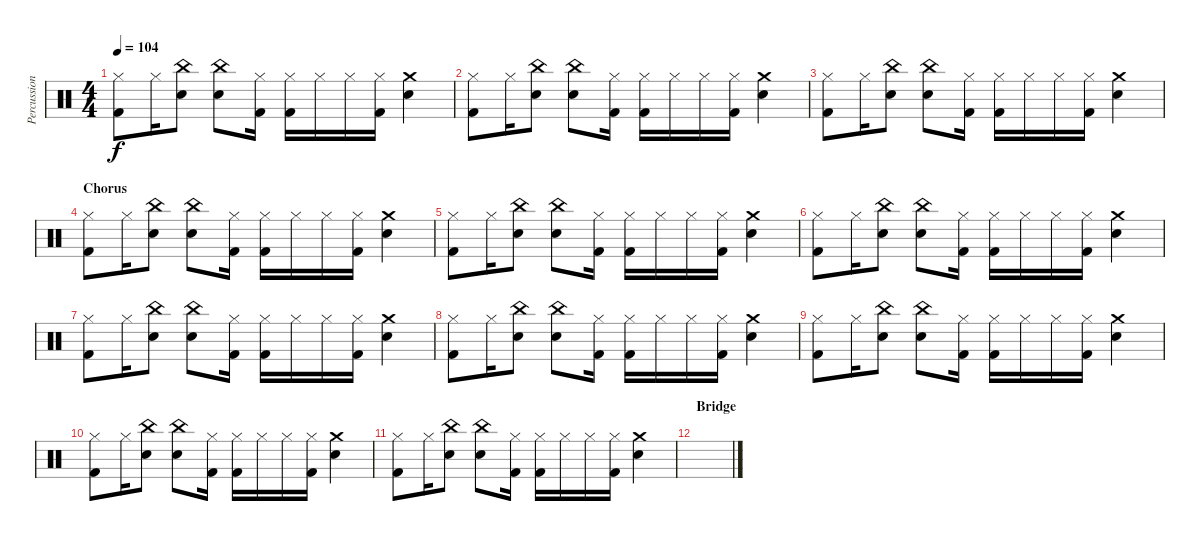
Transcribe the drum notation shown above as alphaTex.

\track ("Percussion" "Percussion") {instrument percussion}
\staff {score}
\articulation defaults
\ts (4 4)
\tempo 104
\clef neutral
\ks c
("Hi-Hat (closed)" "Kick (hit) 2").8{dy f} "Hi-Hat (closed)".16 ("Snare (hit) 2" "China (hit)").8 ("Snare (hit) 2" "China (hit)").8 ("Hi-Hat (closed)" "Kick (hit) 2").16 ("Hi-Hat (closed)" "Kick (hit) 2").16 "Hi-Hat (closed)".16 "Hi-Hat (closed)".16 ("Hi-Hat (closed)" "Kick (hit) 2").16 ("Crash medium (hit)" "Snare (hit) 2").4 |
("Hi-Hat (closed)" "Kick (hit) 2").8 "Hi-Hat (closed)".16 ("Snare (hit) 2" "China (hit)").8 ("Snare (hit) 2" "China (hit)").8 ("Hi-Hat (closed)" "Kick (hit) 2").16 ("Hi-Hat (closed)" "Kick (hit) 2").16 "Hi-Hat (closed)".16 "Hi-Hat (closed)".16 ("Hi-Hat (closed)" "Kick (hit) 2").16 ("Crash medium (hit)" "Snare (hit) 2").4 |
("Hi-Hat (closed)" "Kick (hit) 2").8 "Hi-Hat (closed)".16 ("Snare (hit) 2" "China (hit)").8 ("Snare (hit) 2" "China (hit)").8 ("Hi-Hat (closed)" "Kick (hit) 2").16 ("Hi-Hat (closed)" "Kick (hit) 2").16 "Hi-Hat (closed)".16 "Hi-Hat (closed)".16 ("Hi-Hat (closed)" "Kick (hit) 2").16 ("Crash medium (hit)" "Snare (hit) 2").4 |
\section ("" "Chorus")
("Hi-Hat (closed)" "Kick (hit) 2").8 "Hi-Hat (closed)".16 ("Snare (hit) 2" "China (hit)").8 ("Snare (hit) 2" "China (hit)").8 ("Hi-Hat (closed)" "Kick (hit) 2").16 ("Hi-Hat (closed)" "Kick (hit) 2").16 "Hi-Hat (closed)".16 "Hi-Hat (closed)".16 ("Hi-Hat (closed)" "Kick (hit) 2").16 ("Crash medium (hit)" "Snare (hit) 2").4 |
("Hi-Hat (closed)" "Kick (hit) 2").8 "Hi-Hat (closed)".16 ("Snare (hit) 2" "China (hit)").8 ("Snare (hit) 2" "China (hit)").8 ("Hi-Hat (closed)" "Kick (hit) 2").16 ("Hi-Hat (closed)" "Kick (hit) 2").16 "Hi-Hat (closed)".16 "Hi-Hat (closed)".16 ("Hi-Hat (closed)" "Kick (hit) 2").16 ("Crash medium (hit)" "Snare (hit) 2").4 |
("Hi-Hat (closed)" "Kick (hit) 2").8 "Hi-Hat (closed)".16 ("Snare (hit) 2" "China (hit)").8 ("Snare (hit) 2" "China (hit)").8 ("Hi-Hat (closed)" "Kick (hit) 2").16 ("Hi-Hat (closed)" "Kick (hit) 2").16 "Hi-Hat (closed)".16 "Hi-Hat (closed)".16 ("Hi-Hat (closed)" "Kick (hit) 2").16 ("Crash medium (hit)" "Snare (hit) 2").4 |
("Hi-Hat (closed)" "Kick (hit) 2").8 "Hi-Hat (closed)".16 ("Snare (hit) 2" "China (hit)").8 ("Snare (hit) 2" "China (hit)").8 ("Hi-Hat (closed)" "Kick (hit) 2").16 ("Hi-Hat (closed)" "Kick (hit) 2").16 "Hi-Hat (closed)".16 "Hi-Hat (closed)".16 ("Hi-Hat (closed)" "Kick (hit) 2").16 ("Crash medium (hit)" "Snare (hit) 2").4 |
("Hi-Hat (closed)" "Kick (hit) 2").8 "Hi-Hat (closed)".16 ("Snare (hit) 2" "China (hit)").8 ("Snare (hit) 2" "China (hit)").8 ("Hi-Hat (closed)" "Kick (hit) 2").16 ("Hi-Hat (closed)" "Kick (hit) 2").16 "Hi-Hat (closed)".16 "Hi-Hat (closed)".16 ("Hi-Hat (closed)" "Kick (hit) 2").16 ("Crash medium (hit)" "Snare (hit) 2").4 |
("Hi-Hat (closed)" "Kick (hit) 2").8 "Hi-Hat (closed)".16 ("Snare (hit) 2" "China (hit)").8 ("Snare (hit) 2" "China (hit)").8 ("Hi-Hat (closed)" "Kick (hit) 2").16 ("Hi-Hat (closed)" "Kick (hit) 2").16 "Hi-Hat (closed)".16 "Hi-Hat (closed)".16 ("Hi-Hat (closed)" "Kick (hit) 2").16 ("Crash medium (hit)" "Snare (hit) 2").4 |
("Hi-Hat (closed)" "Kick (hit) 2").8 "Hi-Hat (closed)".16 ("Snare (hit) 2" "China (hit)").8 ("Snare (hit) 2" "China (hit)").8 ("Hi-Hat (closed)" "Kick (hit) 2").16 ("Hi-Hat (closed)" "Kick (hit) 2").16 "Hi-Hat (closed)".16 "Hi-Hat (closed)".16 ("Hi-Hat (closed)" "Kick (hit) 2").16 ("Crash medium (hit)" "Snare (hit) 2").4 |
("Hi-Hat (closed)" "Kick (hit) 2").8 "Hi-Hat (closed)".16 ("Snare (hit) 2" "China (hit)").8 ("Snare (hit) 2" "China (hit)").8 ("Hi-Hat (closed)" "Kick (hit) 2").16 ("Hi-Hat (closed)" "Kick (hit) 2").16 "Hi-Hat (closed)".16 "Hi-Hat (closed)".16 ("Hi-Hat (closed)" "Kick (hit) 2").16 ("Crash medium (hit)" "Snare (hit) 2").4 |
\section ("" "Bridge")
